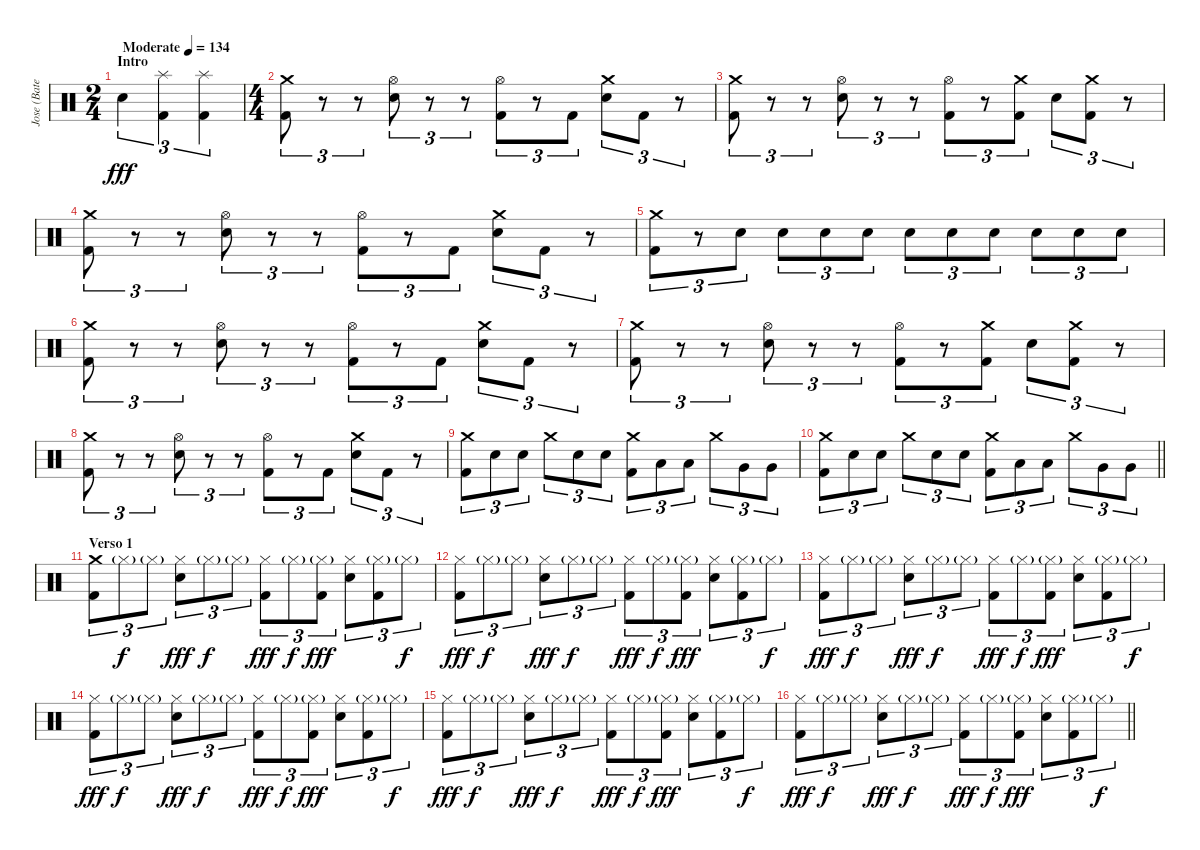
\track ("Jose (Bateria)" "Jose (Bate") {instrument percussion}
\staff {score}
\articulation defaults
\ts (2 4)
\section ("" "Intro")
\tempo (134 "Moderate")
\clef neutral
\ks c "Snare (hit) 2".4{tu (3 2) dy fff}
("Splash (hit)" "Kick (hit) 2").4{tu (3 2)} ("Splash (hit)" "Kick (hit) 2").4{tu (3 2)} |
\ts (4 4)
("Crash medium (hit)" "Kick (hit) 2").8{tu (3 2)} r.8{tu (3 2)} r.8{tu (3 2)} ("Hi-Hat (open)" "Snare (hit) 2").8{tu (3 2)} r.8{tu (3 2)} r.8{tu (3 2)} ("Hi-Hat (open)" "Kick (hit) 2").8{tu (3 2)} r.8{tu (3 2)} "Kick (hit) 2".8{tu (3 2)} ("Crash medium (hit)" "Snare (hit) 2").8{tu (3 2)} "Kick (hit) 2".8{tu (3 2)} r.8{tu (3 2)} |
("Crash medium (hit)" "Kick (hit) 2").8{tu (3 2)} r.8{tu (3 2)} r.8{tu (3 2)} ("Hi-Hat (open)" "Snare (hit) 2").8{tu (3 2)} r.8{tu (3 2)} r.8{tu (3 2)} ("Hi-Hat (open)" "Kick (hit) 2").8{tu (3 2)} r.8{tu (3 2)} ("Crash medium (hit)" "Kick (hit) 2").8{tu (3 2)} "Snare (hit) 2".8{tu (3 2)} ("Crash medium (hit)" "Kick (hit) 2").8{tu (3 2)} r.8{tu (3 2)} |
("Crash medium (hit)" "Kick (hit) 2").8{tu (3 2)} r.8{tu (3 2)} r.8{tu (3 2)} ("Hi-Hat (open)" "Snare (hit) 2").8{tu (3 2)} r.8{tu (3 2)} r.8{tu (3 2)} ("Hi-Hat (open)" "Kick (hit) 2").8{tu (3 2)} r.8{tu (3 2)} "Kick (hit) 2".8{tu (3 2)} ("Crash medium (hit)" "Snare (hit) 2").8{tu (3 2)} "Kick (hit) 2".8{tu (3 2)} r.8{tu (3 2)} |
("Crash medium (hit)" "Kick (hit) 2").8{tu (3 2)} r.8{tu (3 2)} "Snare (hit) 2".8{tu (3 2)} "Snare (hit) 2".8{tu (3 2)} "Snare (hit) 2".8{tu (3 2)} "Snare (hit) 2".8{tu (3 2)} "Snare (hit) 2".8{tu (3 2)} "Snare (hit) 2".8{tu (3 2)} "Snare (hit) 2".8{tu (3 2)} "Snare (hit) 2".8{tu (3 2)} "Snare (hit) 2".8{tu (3 2)} "Snare (hit) 2".8{tu (3 2)} |
("Crash medium (hit)" "Kick (hit) 2").8{tu (3 2)} r.8{tu (3 2)} r.8{tu (3 2)} ("Hi-Hat (open)" "Snare (hit) 2").8{tu (3 2)} r.8{tu (3 2)} r.8{tu (3 2)} ("Hi-Hat (open)" "Kick (hit) 2").8{tu (3 2)} r.8{tu (3 2)} "Kick (hit) 2".8{tu (3 2)} ("Crash medium (hit)" "Snare (hit) 2").8{tu (3 2)} "Kick (hit) 2".8{tu (3 2)} r.8{tu (3 2)} |
("Crash medium (hit)" "Kick (hit) 2").8{tu (3 2)} r.8{tu (3 2)} r.8{tu (3 2)} ("Hi-Hat (open)" "Snare (hit) 2").8{tu (3 2)} r.8{tu (3 2)} r.8{tu (3 2)} ("Hi-Hat (open)" "Kick (hit) 2").8{tu (3 2)} r.8{tu (3 2)} ("Crash medium (hit)" "Kick (hit) 2").8{tu (3 2)} "Snare (hit) 2".8{tu (3 2)} ("Crash medium (hit)" "Kick (hit) 2").8{tu (3 2)} r.8{tu (3 2)} |
("Crash medium (hit)" "Kick (hit) 2").8{tu (3 2)} r.8{tu (3 2)} r.8{tu (3 2)} ("Hi-Hat (open)" "Snare (hit) 2").8{tu (3 2)} r.8{tu (3 2)} r.8{tu (3 2)} ("Hi-Hat (open)" "Kick (hit) 2").8{tu (3 2)} r.8{tu (3 2)} "Kick (hit) 2".8{tu (3 2)} ("Crash medium (hit)" "Snare (hit) 2").8{tu (3 2)} "Kick (hit) 2".8{tu (3 2)} r.8{tu (3 2)} |
("Crash medium (hit)" "Kick (hit) 2").8{tu (3 2)} "Snare (hit) 2".8{tu (3 2)} "Snare (hit) 2".8{tu (3 2)} "Crash medium (hit)".8{tu (3 2)} "Snare (hit) 2".8{tu (3 2)} "Snare (hit) 2".8{tu (3 2)} ("Crash medium (hit)" "Kick (hit) 2").8{tu (3 2)} "Low Tom (hit)".8{tu (3 2)} "Low Tom (hit)".8{tu (3 2)} "Crash medium (hit)".8{tu (3 2)} "Very Low Tom (hit)".8{tu (3 2)} "Very Low Tom (hit)".8{tu (3 2)} |
\barLineRight lightlight
("Crash medium (hit)" "Kick (hit) 2").8{tu (3 2)} "Snare (hit) 2".8{tu (3 2)} "Snare (hit) 2".8{tu (3 2)} "Crash medium (hit)".8{tu (3 2)} "Snare (hit) 2".8{tu (3 2)} "Snare (hit) 2".8{tu (3 2)} ("Crash medium (hit)" "Kick (hit) 2").8{tu (3 2)} "Low Tom (hit)".8{tu (3 2)} "Low Tom (hit)".8{tu (3 2)} "Crash medium (hit)".8{tu (3 2)} "Very Low Tom (hit)".8{tu (3 2)} "Very Low Tom (hit)".8{tu (3 2)} |
\section ("" "Verso 1")
("Crash medium (hit)" "Kick (hit) 2").8{tu (3 2)} "Hi-Hat (closed)"{g}.8{tu (3 2) dy f} "Hi-Hat (closed)"{g}.8{tu (3 2)} ("Hi-Hat (closed)" "Snare (hit) 2").8{tu (3 2) dy fff} "Hi-Hat (closed)"{g}.8{tu (3 2) dy f} "Hi-Hat (closed)"{g}.8{tu (3 2)} ("Hi-Hat (closed)" "Kick (hit) 2").8{tu (3 2) dy fff} "Hi-Hat (closed)"{g}.8{tu (3 2) dy f} ("Hi-Hat (closed)"{g} "Kick (hit) 2").8{tu (3 2) dy fff} ("Hi-Hat (closed)" "Snare (hit) 2").8{tu (3 2)} ("Hi-Hat (closed)"{g} "Kick (hit) 2").8{tu (3 2)} "Hi-Hat (closed)"{g}.8{tu (3 2) dy f} |
("Hi-Hat (closed)" "Kick (hit) 2").8{tu (3 2) dy fff} "Hi-Hat (closed)"{g}.8{tu (3 2) dy f} "Hi-Hat (closed)"{g}.8{tu (3 2)} ("Hi-Hat (closed)" "Snare (hit) 2").8{tu (3 2) dy fff} "Hi-Hat (closed)"{g}.8{tu (3 2) dy f} "Hi-Hat (closed)"{g}.8{tu (3 2)} ("Hi-Hat (closed)" "Kick (hit) 2").8{tu (3 2) dy fff} "Hi-Hat (closed)"{g}.8{tu (3 2) dy f} ("Hi-Hat (closed)"{g} "Kick (hit) 2").8{tu (3 2) dy fff} ("Hi-Hat (closed)" "Snare (hit) 2").8{tu (3 2)} ("Hi-Hat (closed)"{g} "Kick (hit) 2").8{tu (3 2)} "Hi-Hat (closed)"{g}.8{tu (3 2) dy f} |
("Hi-Hat (closed)" "Kick (hit) 2").8{tu (3 2) dy fff} "Hi-Hat (closed)"{g}.8{tu (3 2) dy f} "Hi-Hat (closed)"{g}.8{tu (3 2)} ("Hi-Hat (closed)" "Snare (hit) 2").8{tu (3 2) dy fff} "Hi-Hat (closed)"{g}.8{tu (3 2) dy f} "Hi-Hat (closed)"{g}.8{tu (3 2)} ("Hi-Hat (closed)" "Kick (hit) 2").8{tu (3 2) dy fff} "Hi-Hat (closed)"{g}.8{tu (3 2) dy f} ("Hi-Hat (closed)"{g} "Kick (hit) 2").8{tu (3 2) dy fff} ("Hi-Hat (closed)" "Snare (hit) 2").8{tu (3 2)} ("Hi-Hat (closed)"{g} "Kick (hit) 2").8{tu (3 2)} "Hi-Hat (closed)"{g}.8{tu (3 2) dy f} |
("Hi-Hat (closed)" "Kick (hit) 2").8{tu (3 2) dy fff} "Hi-Hat (closed)"{g}.8{tu (3 2) dy f} "Hi-Hat (closed)"{g}.8{tu (3 2)} ("Hi-Hat (closed)" "Snare (hit) 2").8{tu (3 2) dy fff} "Hi-Hat (closed)"{g}.8{tu (3 2) dy f} "Hi-Hat (closed)"{g}.8{tu (3 2)} ("Hi-Hat (closed)" "Kick (hit) 2").8{tu (3 2) dy fff} "Hi-Hat (closed)"{g}.8{tu (3 2) dy f} ("Hi-Hat (closed)"{g} "Kick (hit) 2").8{tu (3 2) dy fff} ("Hi-Hat (closed)" "Snare (hit) 2").8{tu (3 2)} ("Hi-Hat (closed)"{g} "Kick (hit) 2").8{tu (3 2)} "Hi-Hat (closed)"{g}.8{tu (3 2) dy f} |
("Hi-Hat (closed)" "Kick (hit) 2").8{tu (3 2) dy fff} "Hi-Hat (closed)"{g}.8{tu (3 2) dy f} "Hi-Hat (closed)"{g}.8{tu (3 2)} ("Hi-Hat (closed)" "Snare (hit) 2").8{tu (3 2) dy fff} "Hi-Hat (closed)"{g}.8{tu (3 2) dy f} "Hi-Hat (closed)"{g}.8{tu (3 2)} ("Hi-Hat (closed)" "Kick (hit) 2").8{tu (3 2) dy fff} "Hi-Hat (closed)"{g}.8{tu (3 2) dy f} ("Hi-Hat (closed)"{g} "Kick (hit) 2").8{tu (3 2) dy fff} ("Hi-Hat (closed)" "Snare (hit) 2").8{tu (3 2)} ("Hi-Hat (closed)"{g} "Kick (hit) 2").8{tu (3 2)} "Hi-Hat (closed)"{g}.8{tu (3 2) dy f} |
\barLineRight lightlight
("Hi-Hat (closed)" "Kick (hit) 2").8{tu (3 2) dy fff} "Hi-Hat (closed)"{g}.8{tu (3 2) dy f} "Hi-Hat (closed)"{g}.8{tu (3 2)} ("Hi-Hat (closed)" "Snare (hit) 2").8{tu (3 2) dy fff} "Hi-Hat (closed)"{g}.8{tu (3 2) dy f} "Hi-Hat (closed)"{g}.8{tu (3 2)} ("Hi-Hat (closed)" "Kick (hit) 2").8{tu (3 2) dy fff} "Hi-Hat (closed)"{g}.8{tu (3 2) dy f} ("Hi-Hat (closed)"{g} "Kick (hit) 2").8{tu (3 2) dy fff} ("Hi-Hat (closed)" "Snare (hit) 2").8{tu (3 2)} ("Hi-Hat (closed)"{g} "Kick (hit) 2").8{tu (3 2)} "Hi-Hat (closed)"{g}.8{tu (3 2) dy f}
